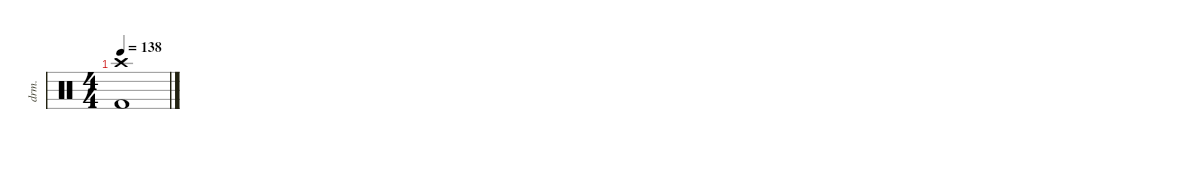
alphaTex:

\defaultSystemsLayout 4
\hideDynamics
\bracketExtendMode nobrackets
\track ("Percussions" "drm.") {instrument percussion}
\staff {score}
\articulation defaults
\ts (4 4)
\tempo 138
\clef neutral
\ks aminor
("Kick (hit) 2" "Crash high (hit)").1{dy f}
